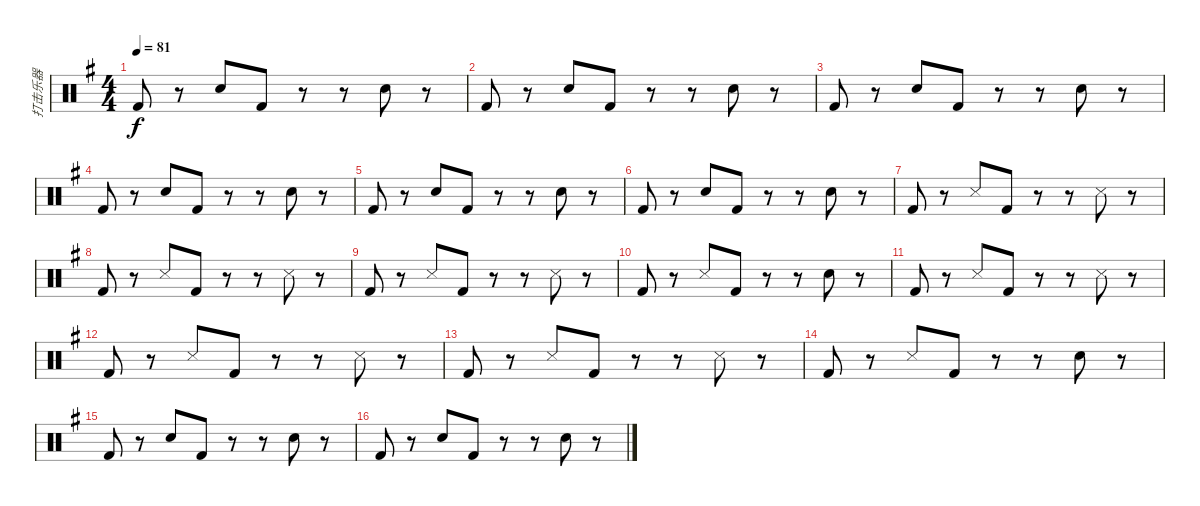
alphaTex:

\track ("打击乐器" "打击乐器") {instrument percussion}
\staff {score}
\articulation defaults
\ts (4 4)
\tempo 81
\clef neutral
\ks g "Kick (hit) 2".8{dy f}
r.8 "Electric Snare (hit)".8 "Kick (hit) 2".8 r.8 r.8 "Electric Snare (hit)".8 r.8 |
"Kick (hit) 2".8 r.8 "Electric Snare (hit)".8 "Kick (hit) 2".8 r.8 r.8 "Electric Snare (hit)".8 r.8 |
"Kick (hit) 2".8 r.8 "Electric Snare (hit)".8 "Kick (hit) 2".8 r.8 r.8 "Electric Snare (hit)".8 r.8 |
"Kick (hit) 2".8 r.8 "Electric Snare (hit)".8 "Kick (hit) 2".8 r.8 r.8 "Electric Snare (hit)".8 r.8 |
"Kick (hit) 2".8 r.8 "Electric Snare (hit)".8 "Kick (hit) 2".8 r.8 r.8 "Electric Snare (hit)".8 r.8 |
"Kick (hit) 2".8 r.8 "Electric Snare (hit)".8 "Kick (hit) 2".8 r.8 r.8 "Electric Snare (hit)".8 r.8 |
"Kick (hit) 2".8 r.8 "Metronome (hit)".8 "Kick (hit) 2".8 r.8 r.8 "Metronome (hit)".8 r.8 |
"Kick (hit) 2".8 r.8 "Metronome (hit)".8 "Kick (hit) 2".8 r.8 r.8 "Metronome (hit)".8 r.8 |
"Kick (hit) 2".8 r.8 "Metronome (hit)".8 "Kick (hit) 2".8 r.8 r.8 "Metronome (hit)".8 r.8 |
"Kick (hit) 2".8 r.8 "Metronome (hit)".8 "Kick (hit) 2".8 r.8 r.8 "Electric Snare (hit)".8 r.8 |
"Kick (hit) 2".8 r.8 "Metronome (hit)".8 "Kick (hit) 2".8 r.8 r.8 "Metronome (hit)".8 r.8 |
"Kick (hit) 2".8 r.8 "Metronome (hit)".8 "Kick (hit) 2".8 r.8 r.8 "Metronome (hit)".8 r.8 |
"Kick (hit) 2".8 r.8 "Metronome (hit)".8 "Kick (hit) 2".8 r.8 r.8 "Metronome (hit)".8 r.8 |
"Kick (hit) 2".8 r.8 "Metronome (hit)".8 "Kick (hit) 2".8 r.8 r.8 "Electric Snare (hit)".8 r.8 |
"Kick (hit) 2".8 r.8 "Electric Snare (hit)".8 "Kick (hit) 2".8 r.8 r.8 "Electric Snare (hit)".8 r.8 |
"Kick (hit) 2".8 r.8 "Electric Snare (hit)".8 "Kick (hit) 2".8 r.8 r.8 "Electric Snare (hit)".8 r.8
